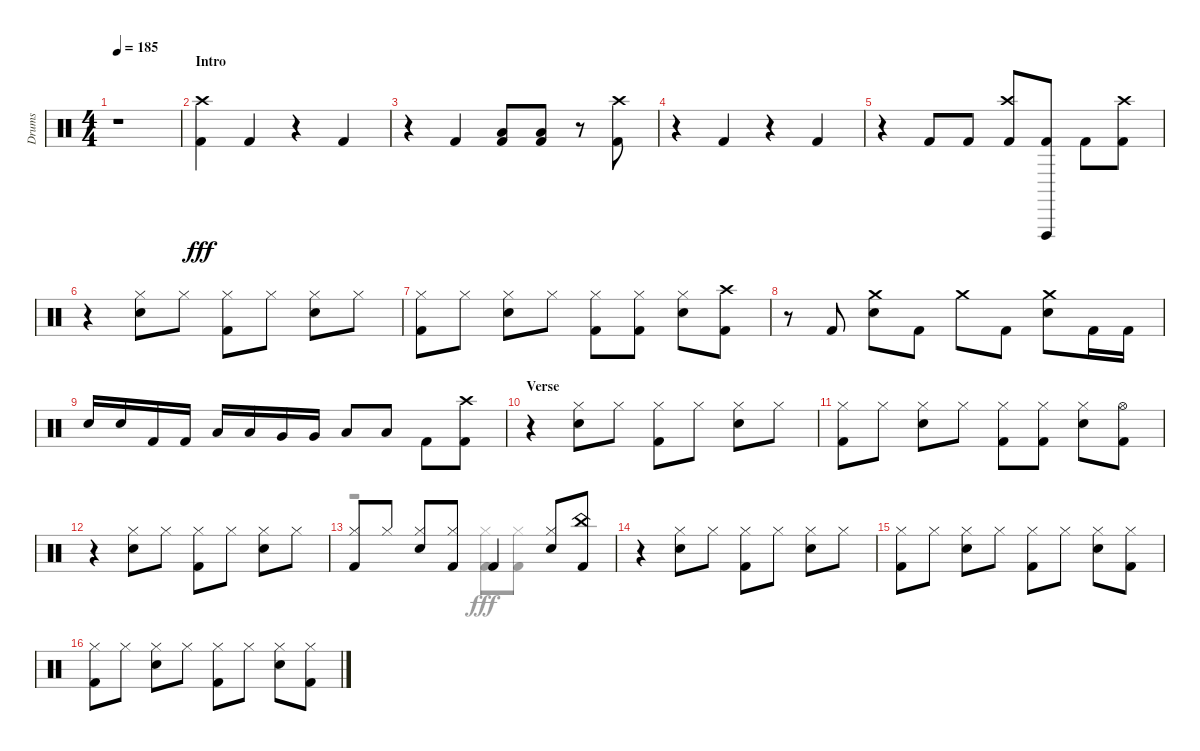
\track ("Drums" "Drums") {instrument percussion}
\staff {score}
\articulation defaults
\voice
\ts (4 4)
\tempo 185
\clef neutral
\ks aminor
r.1{dy fff} |
\section ("" "Intro")
("Kick (hit) 2" "Crash high (hit)").4 "Kick (hit) 2".4 r.4 "Kick (hit) 2".4 |
r.4 "Kick (hit) 2".4 ("Kick (hit) 2" "Low Floor Tom (hit)").8 ("Kick (hit) 2" "Low Floor Tom (hit)").8 r.8 ("Kick (hit) 2" "Crash high (hit)").8 |
r.4 "Kick (hit) 2".4 r.4 "Kick (hit) 2".4 |
r.4 "Kick (hit) 2".8 "Kick (hit) 2".8 ("Kick (hit) 2" "Crash high (hit)").8 ("Kick (hit) 2" "Vibraslap (hit)").8 "Kick (hit) 2".8 ("Kick (hit) 2" "Crash high (hit)").8 |
r.4 ("Snare (hit) 2" "Hi-Hat (closed)").8 "Hi-Hat (closed)".8 ("Kick (hit) 2" "Hi-Hat (closed)").8 "Hi-Hat (closed)".8 ("Snare (hit) 2" "Hi-Hat (closed)").8 "Hi-Hat (closed)".8 |
("Kick (hit) 2" "Hi-Hat (closed)").8 "Hi-Hat (closed)".8 ("Snare (hit) 2" "Hi-Hat (closed)").8 "Hi-Hat (closed)".8 ("Kick (hit) 2" "Hi-Hat (closed)").8 ("Kick (hit) 2" "Hi-Hat (closed)").8 ("Snare (hit) 2" "Hi-Hat (closed)").8 ("Kick (hit) 2" "Crash high (hit)").8 |
r.8 "Kick (hit) 2".8 ("Snare (hit) 2" "Crash medium (hit)").8 "Kick (hit) 2".8 "Crash medium (hit)".8 "Kick (hit) 2".8 ("Snare (hit) 2" "Crash medium (hit)").8 "Kick (hit) 2".16 "Kick (hit) 2".16 |
"Snare (hit) 2".16 "Snare (hit) 2".16 "Kick (hit) 2".16 "Kick (hit) 2".16 "Low Tom (hit)".16 "Low Tom (hit)".16 "Very Low Tom (hit)".16 "Very Low Tom (hit)".16 "Low Floor Tom (hit)".8 "Low Floor Tom (hit)".8 "Kick (hit) 2".8 ("Kick (hit) 2" "Crash high (hit)").8 |
\section ("" "Verse")
r.4 ("Snare (hit) 2" "Hi-Hat (closed)").8 "Hi-Hat (closed)".8 ("Kick (hit) 2" "Hi-Hat (closed)").8 "Hi-Hat (closed)".8 ("Snare (hit) 2" "Hi-Hat (closed)").8 "Hi-Hat (closed)".8 |
("Kick (hit) 2" "Hi-Hat (closed)").8 "Hi-Hat (closed)".8 ("Snare (hit) 2" "Hi-Hat (closed)").8 "Hi-Hat (closed)".8 ("Kick (hit) 2" "Hi-Hat (closed)").8 ("Kick (hit) 2" "Hi-Hat (closed)").8 ("Snare (hit) 2" "Hi-Hat (closed)").8 ("Kick (hit) 2" "Hi-Hat (open)").8 |
r.4 ("Snare (hit) 2" "Hi-Hat (closed)").8 "Hi-Hat (closed)".8 ("Kick (hit) 2" "Hi-Hat (closed)").8 "Hi-Hat (closed)".8 ("Snare (hit) 2" "Hi-Hat (closed)").8 "Hi-Hat (closed)".8 |
("Kick (hit) 2" "Hi-Hat (closed)").8 "Hi-Hat (closed)".8 ("Snare (hit) 2" "Hi-Hat (closed)").8 ("Hi-Hat (closed)" "Kick (hit) 2").8 "Kick (hit) 2".4 ("Hi-Hat (closed)" "Snare (hit) 2").8 ("Kick (hit) 2" "China (hit)").8 |
r.4 ("Snare (hit) 2" "Hi-Hat (closed)").8 "Hi-Hat (closed)".8 ("Kick (hit) 2" "Hi-Hat (closed)").8 "Hi-Hat (closed)".8 ("Snare (hit) 2" "Hi-Hat (closed)").8 "Hi-Hat (closed)".8 |
("Kick (hit) 2" "Hi-Hat (closed)").8 "Hi-Hat (closed)".8 ("Snare (hit) 2" "Hi-Hat (closed)").8 "Hi-Hat (closed)".8 ("Hi-Hat (closed)" "Kick (hit) 2").8 "Hi-Hat (closed)".8 ("Snare (hit) 2" "Hi-Hat (closed)").8 ("Kick (hit) 2" "Hi-Hat (closed)").8 |
("Hi-Hat (closed)" "Kick (hit) 2").8 "Hi-Hat (closed)".8 ("Hi-Hat (closed)" "Snare (hit) 2").8 "Hi-Hat (closed)".8 ("Kick (hit) 2" "Hi-Hat (closed)").8 "Hi-Hat (closed)".8 ("Hi-Hat (closed)" "Snare (hit) 2").8 ("Kick (hit) 2" "Hi-Hat (closed)").8
\voice
\clef neutral
\ottava regular
\simile none
\ks aminor
|
|
|
|
|
|
|
|
|
|
|
|
r.2 ("Kick (hit) 2" "Hi-Hat (closed)").8 ("Kick (hit) 2" "Hi-Hat (closed)").8 |
|
|
